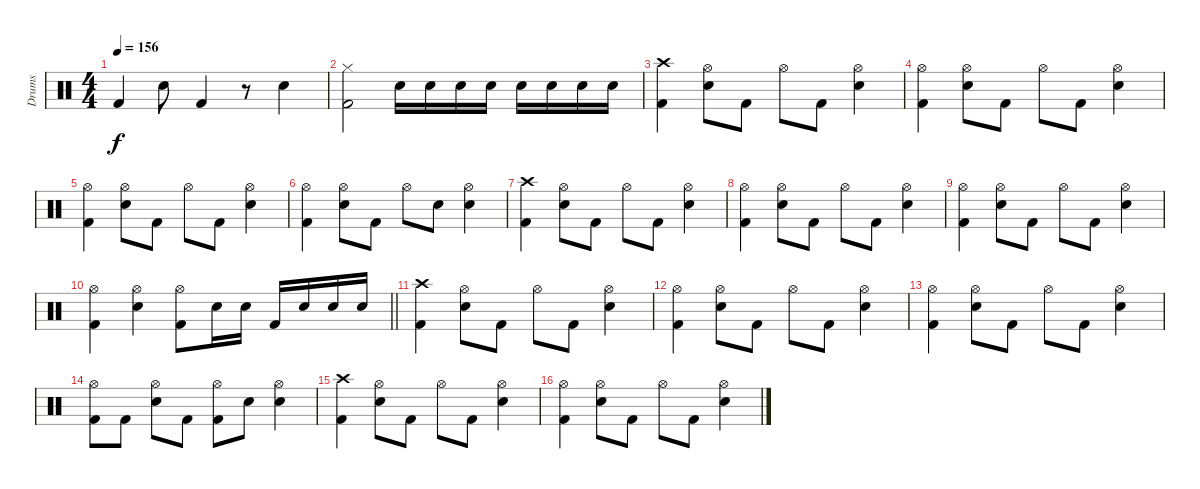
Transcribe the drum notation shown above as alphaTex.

\track ("Drums" "Drums") {instrument percussion}
\staff {score}
\articulation defaults
\ts (4 4)
\tempo 156
\clef neutral
\ks c "Kick (hit) 2".4{dy f} "Snare (hit) 2".8 "Kick (hit) 2".4
r.8 "Snare (hit) 2".4 |
("Hi-Hat (closed)" "Kick (hit) 2").2 "Snare (hit) 2".16 "Snare (hit) 2".16 "Snare (hit) 2".16 "Snare (hit) 2".16 "Snare (hit) 2".16 "Snare (hit) 2".16 "Snare (hit) 2".16 "Snare (hit) 2".16 |
("Crash high (hit)" "Kick (hit) 2").4 ("Hi-Hat (open)" "Snare (hit) 2").8 "Kick (hit) 2".8 "Hi-Hat (open)".8 "Kick (hit) 2".8 ("Hi-Hat (open)" "Snare (hit) 2").4 |
("Hi-Hat (open)" "Kick (hit) 2").4 ("Hi-Hat (open)" "Snare (hit) 2").8 "Kick (hit) 2".8 "Hi-Hat (open)".8 "Kick (hit) 2".8 ("Hi-Hat (open)" "Snare (hit) 2").4 |
("Hi-Hat (open)" "Kick (hit) 2").4 ("Hi-Hat (open)" "Snare (hit) 2").8 "Kick (hit) 2".8 "Hi-Hat (open)".8 "Kick (hit) 2".8 ("Hi-Hat (open)" "Snare (hit) 2").4 |
("Hi-Hat (open)" "Kick (hit) 2").4 ("Hi-Hat (open)" "Snare (hit) 2").8 "Kick (hit) 2".8 "Hi-Hat (open)".8 "Snare (hit) 2".8 ("Hi-Hat (open)" "Snare (hit) 2").4 |
("Crash high (hit)" "Kick (hit) 2").4 ("Hi-Hat (open)" "Snare (hit) 2").8 "Kick (hit) 2".8 "Hi-Hat (open)".8 "Kick (hit) 2".8 ("Hi-Hat (open)" "Snare (hit) 2").4 |
("Hi-Hat (open)" "Kick (hit) 2").4 ("Hi-Hat (open)" "Snare (hit) 2").8 "Kick (hit) 2".8 "Hi-Hat (open)".8 "Kick (hit) 2".8 ("Hi-Hat (open)" "Snare (hit) 2").4 |
("Hi-Hat (open)" "Kick (hit) 2").4 ("Hi-Hat (open)" "Snare (hit) 2").8 "Kick (hit) 2".8 "Hi-Hat (open)".8 "Kick (hit) 2".8 ("Hi-Hat (open)" "Snare (hit) 2").4 |
\barLineRight lightlight
("Hi-Hat (open)" "Kick (hit) 2").4 ("Hi-Hat (open)" "Snare (hit) 2").4 ("Hi-Hat (open)" "Kick (hit) 2").8 "Snare (hit) 2".16 "Snare (hit) 2".16 "Kick (hit) 2".16 "Snare (hit) 2".16 "Snare (hit) 2".16 "Snare (hit) 2".16 |
("Crash high (hit)" "Kick (hit) 2").4 ("Hi-Hat (open)" "Snare (hit) 2").8 "Kick (hit) 2".8 "Hi-Hat (open)".8 "Kick (hit) 2".8 ("Hi-Hat (open)" "Snare (hit) 2").4 |
("Hi-Hat (open)" "Kick (hit) 2").4 ("Hi-Hat (open)" "Snare (hit) 2").8 "Kick (hit) 2".8 "Hi-Hat (open)".8 "Kick (hit) 2".8 ("Hi-Hat (open)" "Snare (hit) 2").4 |
("Hi-Hat (open)" "Kick (hit) 2").4 ("Hi-Hat (open)" "Snare (hit) 2").8 "Kick (hit) 2".8 "Hi-Hat (open)".8 "Kick (hit) 2".8 ("Hi-Hat (open)" "Snare (hit) 2").4 |
("Hi-Hat (open)" "Kick (hit) 2").8 "Kick (hit) 2".8 ("Hi-Hat (open)" "Snare (hit) 2").8 "Kick (hit) 2".8 ("Hi-Hat (open)" "Kick (hit) 2").8 "Snare (hit) 2".8 ("Hi-Hat (open)" "Snare (hit) 2").4 |
("Crash high (hit)" "Kick (hit) 2").4 ("Hi-Hat (open)" "Snare (hit) 2").8 "Kick (hit) 2".8 "Hi-Hat (open)".8 "Kick (hit) 2".8 ("Hi-Hat (open)" "Snare (hit) 2").4 |
("Hi-Hat (open)" "Kick (hit) 2").4 ("Hi-Hat (open)" "Snare (hit) 2").8 "Kick (hit) 2".8 "Hi-Hat (open)".8 "Kick (hit) 2".8 ("Hi-Hat (open)" "Snare (hit) 2").4
